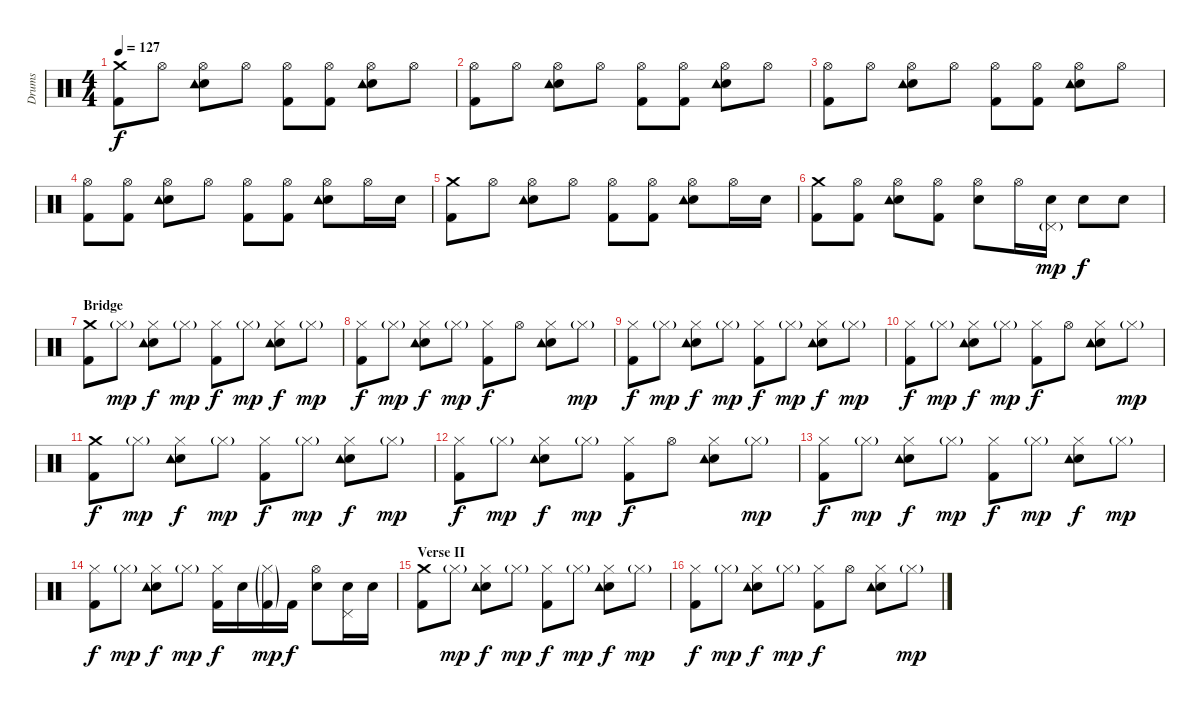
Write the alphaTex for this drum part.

\track ("Drums" "Drums") {instrument percussion}
\staff {score}
\articulation defaults
\ts (4 4)
\tempo 127
\clef neutral
\ks c
("Crash medium (hit)" "Kick (hit) 2").8{dy f} "Hi-Hat (open)".8 ("Hi-Hat (open)" "Snare (hit) 2" "Tambourine (hit)").8 "Hi-Hat (open)".8 ("Hi-Hat (open)" "Kick (hit) 2").8 ("Hi-Hat (open)" "Kick (hit) 2").8 ("Hi-Hat (open)" "Snare (hit) 2" "Tambourine (hit)").8 "Hi-Hat (open)".8 |
("Hi-Hat (open)" "Kick (hit) 2").8 "Hi-Hat (open)".8 ("Hi-Hat (open)" "Snare (hit) 2" "Tambourine (hit)").8 "Hi-Hat (open)".8 ("Hi-Hat (open)" "Kick (hit) 2").8 ("Hi-Hat (open)" "Kick (hit) 2").8 ("Hi-Hat (open)" "Snare (hit) 2" "Tambourine (hit)").8 "Hi-Hat (open)".8 |
("Hi-Hat (open)" "Kick (hit) 2").8 "Hi-Hat (open)".8 ("Hi-Hat (open)" "Snare (hit) 2" "Tambourine (hit)").8 "Hi-Hat (open)".8 ("Hi-Hat (open)" "Kick (hit) 2").8 ("Hi-Hat (open)" "Kick (hit) 2").8 ("Hi-Hat (open)" "Snare (hit) 2" "Tambourine (hit)").8 "Hi-Hat (open)".8 |
("Hi-Hat (open)" "Kick (hit) 2").8 ("Hi-Hat (open)" "Kick (hit) 2").8 ("Hi-Hat (open)" "Snare (hit) 2" "Tambourine (hit)").8 "Hi-Hat (open)".8 ("Hi-Hat (open)" "Kick (hit) 2").8 ("Hi-Hat (open)" "Kick (hit) 2").8 ("Hi-Hat (open)" "Snare (hit) 2" "Tambourine (hit)").8 "Hi-Hat (open)".16 "Snare (hit) 2".16 |
("Crash medium (hit)" "Kick (hit) 2").8 "Hi-Hat (open)".8 ("Hi-Hat (open)" "Snare (hit) 2" "Tambourine (hit)").8 "Hi-Hat (open)".8 ("Hi-Hat (open)" "Kick (hit) 2").8 ("Hi-Hat (open)" "Kick (hit) 2").8 ("Hi-Hat (open)" "Snare (hit) 2" "Tambourine (hit)").8 "Hi-Hat (open)".16 "Snare (hit) 2".16 |
("Crash medium (hit)" "Kick (hit) 2").8 ("Hi-Hat (open)" "Kick (hit) 2").8 ("Hi-Hat (open)" "Snare (hit) 2" "Tambourine (hit)").8 ("Hi-Hat (open)" "Kick (hit) 2").8 ("Hi-Hat (open)" "Snare (hit) 2").8 "Hi-Hat (open)".16 ("Pedal Hi-Hat (hit)"{g} "Snare (hit) 2").16{dy mp} "Snare (hit) 2".8{dy f} "Snare (hit) 2".8 |
\section ("" "Bridge")
("Crash medium (hit)" "Kick (hit) 2").8 "Hi-Hat (closed)"{g}.8{dy mp} ("Hi-Hat (closed)" "Snare (hit) 2" "Tambourine (hit)").8{dy f} "Hi-Hat (closed)"{g}.8{dy mp} ("Hi-Hat (closed)" "Kick (hit) 2").8{dy f} "Hi-Hat (closed)"{g}.8{dy mp} ("Hi-Hat (closed)" "Snare (hit) 2" "Tambourine (hit)").8{dy f} "Hi-Hat (closed)"{g}.8{dy mp} |
("Hi-Hat (closed)" "Kick (hit) 2").8{dy f} "Hi-Hat (closed)"{g}.8{dy mp} ("Hi-Hat (closed)" "Snare (hit) 2" "Tambourine (hit)").8{dy f} "Hi-Hat (closed)"{g}.8{dy mp} ("Hi-Hat (closed)" "Kick (hit) 2").8{dy f} "Hi-Hat (open)".8 ("Hi-Hat (closed)" "Snare (hit) 2" "Tambourine (hit)").8 "Hi-Hat (closed)"{g}.8{dy mp} |
("Hi-Hat (closed)" "Kick (hit) 2").8{dy f} "Hi-Hat (closed)"{g}.8{dy mp} ("Hi-Hat (closed)" "Snare (hit) 2" "Tambourine (hit)").8{dy f} "Hi-Hat (closed)"{g}.8{dy mp} ("Hi-Hat (closed)" "Kick (hit) 2").8{dy f} "Hi-Hat (closed)"{g}.8{dy mp} ("Hi-Hat (closed)" "Snare (hit) 2" "Tambourine (hit)").8{dy f} "Hi-Hat (closed)"{g}.8{dy mp} |
("Hi-Hat (closed)" "Kick (hit) 2").8{dy f} "Hi-Hat (closed)"{g}.8{dy mp} ("Hi-Hat (closed)" "Snare (hit) 2" "Tambourine (hit)").8{dy f} "Hi-Hat (closed)"{g}.8{dy mp} ("Hi-Hat (closed)" "Kick (hit) 2").8{dy f} "Hi-Hat (open)".8 ("Hi-Hat (closed)" "Snare (hit) 2" "Tambourine (hit)").8 "Hi-Hat (closed)"{g}.8{dy mp} |
("Crash medium (hit)" "Kick (hit) 2").8{dy f} "Hi-Hat (closed)"{g}.8{dy mp} ("Hi-Hat (closed)" "Snare (hit) 2" "Tambourine (hit)").8{dy f} "Hi-Hat (closed)"{g}.8{dy mp} ("Hi-Hat (closed)" "Kick (hit) 2").8{dy f} "Hi-Hat (closed)"{g}.8{dy mp} ("Hi-Hat (closed)" "Snare (hit) 2" "Tambourine (hit)").8{dy f} "Hi-Hat (closed)"{g}.8{dy mp} |
("Hi-Hat (closed)" "Kick (hit) 2").8{dy f} "Hi-Hat (closed)"{g}.8{dy mp} ("Hi-Hat (closed)" "Snare (hit) 2" "Tambourine (hit)").8{dy f} "Hi-Hat (closed)"{g}.8{dy mp} ("Hi-Hat (closed)" "Kick (hit) 2").8{dy f} "Hi-Hat (open)".8 ("Hi-Hat (closed)" "Snare (hit) 2" "Tambourine (hit)").8 "Hi-Hat (closed)"{g}.8{dy mp} |
("Hi-Hat (closed)" "Kick (hit) 2").8{dy f} "Hi-Hat (closed)"{g}.8{dy mp} ("Hi-Hat (closed)" "Snare (hit) 2" "Tambourine (hit)").8{dy f} "Hi-Hat (closed)"{g}.8{dy mp} ("Hi-Hat (closed)" "Kick (hit) 2").8{dy f} "Hi-Hat (closed)"{g}.8{dy mp} ("Hi-Hat (closed)" "Snare (hit) 2" "Tambourine (hit)").8{dy f} "Hi-Hat (closed)"{g}.8{dy mp} |
("Hi-Hat (closed)" "Kick (hit) 2").8{dy f} "Hi-Hat (closed)"{g}.8{dy mp} ("Hi-Hat (closed)" "Snare (hit) 2" "Tambourine (hit)").8{dy f} "Hi-Hat (closed)"{g}.8{dy mp} ("Hi-Hat (closed)" "Kick (hit) 2").16{dy f} "Snare (hit) 2".16 ("Hi-Hat (closed)"{g} "Kick (hit) 2"{g}).16{dy mp} "Kick (hit) 2".16{dy f} ("Hi-Hat (open)" "Snare (hit) 2").8 ("Pedal Hi-Hat (hit)" "Snare (hit) 2").16 "Snare (hit) 2".16 |
\section ("" "Verse II")
("Crash medium (hit)" "Kick (hit) 2").8 "Hi-Hat (closed)"{g}.8{dy mp} ("Hi-Hat (closed)" "Snare (hit) 2" "Tambourine (hit)").8{dy f} "Hi-Hat (closed)"{g}.8{dy mp} ("Hi-Hat (closed)" "Kick (hit) 2").8{dy f} "Hi-Hat (closed)"{g}.8{dy mp} ("Hi-Hat (closed)" "Snare (hit) 2" "Tambourine (hit)").8{dy f} "Hi-Hat (closed)"{g}.8{dy mp} |
("Hi-Hat (closed)" "Kick (hit) 2").8{dy f} "Hi-Hat (closed)"{g}.8{dy mp} ("Hi-Hat (closed)" "Snare (hit) 2" "Tambourine (hit)").8{dy f} "Hi-Hat (closed)"{g}.8{dy mp} ("Hi-Hat (closed)" "Kick (hit) 2").8{dy f} "Hi-Hat (open)".8 ("Hi-Hat (closed)" "Snare (hit) 2" "Tambourine (hit)").8 "Hi-Hat (closed)"{g}.8{dy mp}
